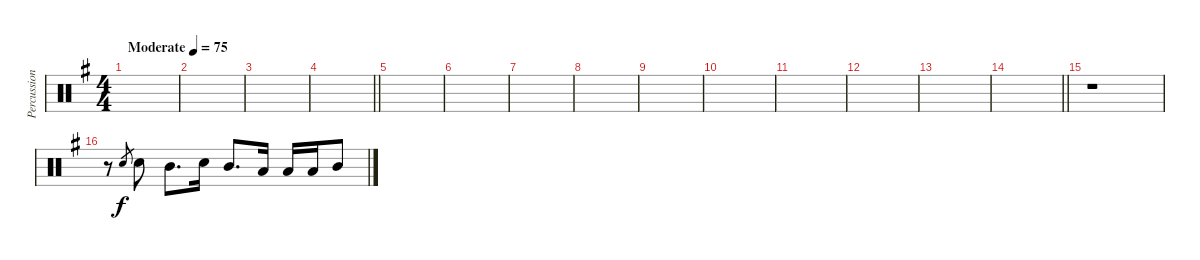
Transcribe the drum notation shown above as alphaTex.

\track ("Percussion" "Percussion") {instrument percussion}
\staff {score}
\articulation defaults
\ts (4 4)
\tempo (75 "Moderate")
\clef neutral
\ks g
|
|
|
\barLineRight lightlight
|
|
|
|
|
|
|
|
|
|
\barLineRight lightlight
|
r.1 |
r.8 "Snare (hit) 2".8{gr} "Snare (hit) 2".8 "Mid Tom (hit)".8{d} "Snare (hit) 2".16 "Mid Tom (hit)".8{d} "Low Tom (hit)".16 "Low Tom (hit)".16 "Low Tom (hit)".16 "Mid Tom (hit)".8
